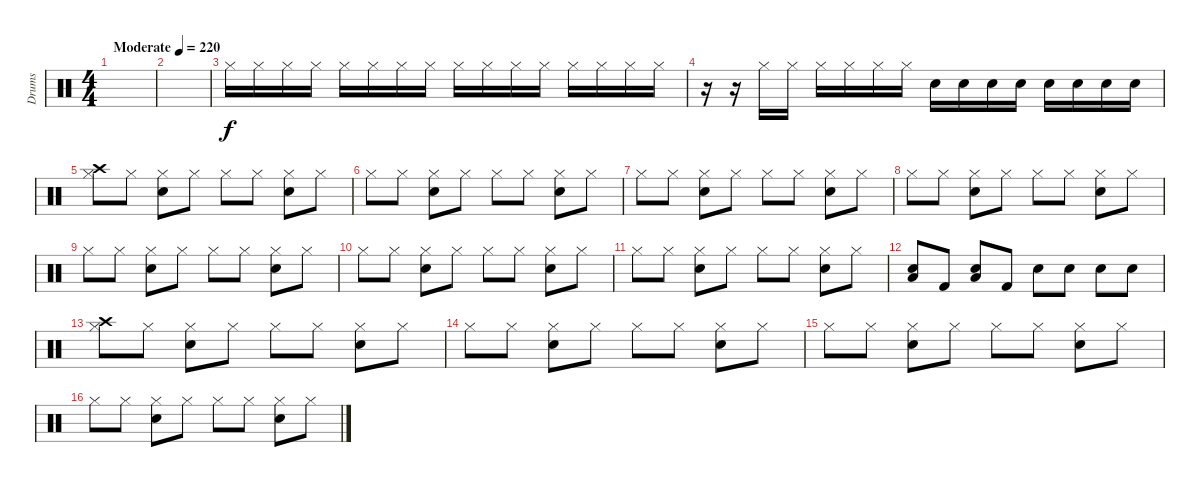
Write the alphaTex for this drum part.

\track ("Drums" "Drums") {instrument percussion}
\staff {score}
\articulation defaults
\ts (4 4)
\tempo (220 "Moderate")
\clef neutral
\ks c
|
|
"Hi-Hat (closed)".16 "Hi-Hat (closed)".16 "Hi-Hat (closed)".16 "Hi-Hat (closed)".16 "Hi-Hat (closed)".16 "Hi-Hat (closed)".16 "Hi-Hat (closed)".16 "Hi-Hat (closed)".16 "Hi-Hat (closed)".16 "Hi-Hat (closed)".16 "Hi-Hat (closed)".16 "Hi-Hat (closed)".16 "Hi-Hat (closed)".16 "Hi-Hat (closed)".16 "Hi-Hat (closed)".16 "Hi-Hat (closed)".16 |
r.16 r.16 "Hi-Hat (closed)".16 "Hi-Hat (closed)".16 "Hi-Hat (closed)".16 "Hi-Hat (closed)".16 "Hi-Hat (closed)".16 "Hi-Hat (closed)".16 "Snare (hit) 2".16 "Snare (hit) 2".16 "Snare (hit) 2".16 "Snare (hit) 2".16 "Snare (hit) 2".16 "Snare (hit) 2".16 "Snare (hit) 2".16 "Snare (hit) 2".16 |
("Crash high (hit)" "Hi-Hat (closed)").8 "Hi-Hat (closed)".8 ("Hi-Hat (closed)" "Snare (hit) 2").8 "Hi-Hat (closed)".8 "Hi-Hat (closed)".8 "Hi-Hat (closed)".8 ("Hi-Hat (closed)" "Snare (hit) 2").8 "Hi-Hat (closed)".8 |
"Hi-Hat (closed)".8 "Hi-Hat (closed)".8 ("Hi-Hat (closed)" "Snare (hit) 2").8 "Hi-Hat (closed)".8 "Hi-Hat (closed)".8 "Hi-Hat (closed)".8 ("Hi-Hat (closed)" "Snare (hit) 2").8 "Hi-Hat (closed)".8 |
"Hi-Hat (closed)".8 "Hi-Hat (closed)".8 ("Hi-Hat (closed)" "Snare (hit) 2").8 "Hi-Hat (closed)".8 "Hi-Hat (closed)".8 "Hi-Hat (closed)".8 ("Hi-Hat (closed)" "Snare (hit) 2").8 "Hi-Hat (closed)".8 |
"Hi-Hat (closed)".8 "Hi-Hat (closed)".8 ("Hi-Hat (closed)" "Snare (hit) 2").8 "Hi-Hat (closed)".8 "Hi-Hat (closed)".8 "Hi-Hat (closed)".8 ("Hi-Hat (closed)" "Snare (hit) 2").8 "Hi-Hat (closed)".8 |
"Hi-Hat (closed)".8 "Hi-Hat (closed)".8 ("Hi-Hat (closed)" "Snare (hit) 2").8 "Hi-Hat (closed)".8 "Hi-Hat (closed)".8 "Hi-Hat (closed)".8 ("Hi-Hat (closed)" "Snare (hit) 2").8 "Hi-Hat (closed)".8 |
"Hi-Hat (closed)".8 "Hi-Hat (closed)".8 ("Hi-Hat (closed)" "Snare (hit) 2").8 "Hi-Hat (closed)".8 "Hi-Hat (closed)".8 "Hi-Hat (closed)".8 ("Hi-Hat (closed)" "Snare (hit) 2").8 "Hi-Hat (closed)".8 |
"Hi-Hat (closed)".8 "Hi-Hat (closed)".8 ("Hi-Hat (closed)" "Snare (hit) 2").8 "Hi-Hat (closed)".8 "Hi-Hat (closed)".8 "Hi-Hat (closed)".8 ("Hi-Hat (closed)" "Snare (hit) 2").8 "Hi-Hat (closed)".8 |
("Low Floor Tom (hit)" "Snare (hit) 2").8 "Kick (hit) 2".8 ("Low Floor Tom (hit)" "Snare (hit) 2").8 "Kick (hit) 2".8 "Snare (hit) 2".8 "Snare (hit) 2".8 "Snare (hit) 2".8 "Snare (hit) 2".8 |
("Crash high (hit)" "Hi-Hat (closed)").8 "Hi-Hat (closed)".8 ("Hi-Hat (closed)" "Snare (hit) 2").8 "Hi-Hat (closed)".8 "Hi-Hat (closed)".8 "Hi-Hat (closed)".8 ("Hi-Hat (closed)" "Snare (hit) 2").8 "Hi-Hat (closed)".8 |
"Hi-Hat (closed)".8 "Hi-Hat (closed)".8 ("Hi-Hat (closed)" "Snare (hit) 2").8 "Hi-Hat (closed)".8 "Hi-Hat (closed)".8 "Hi-Hat (closed)".8 ("Hi-Hat (closed)" "Snare (hit) 2").8 "Hi-Hat (closed)".8 |
"Hi-Hat (closed)".8 "Hi-Hat (closed)".8 ("Hi-Hat (closed)" "Snare (hit) 2").8 "Hi-Hat (closed)".8 "Hi-Hat (closed)".8 "Hi-Hat (closed)".8 ("Hi-Hat (closed)" "Snare (hit) 2").8 "Hi-Hat (closed)".8 |
"Hi-Hat (closed)".8 "Hi-Hat (closed)".8 ("Hi-Hat (closed)" "Snare (hit) 2").8 "Hi-Hat (closed)".8 "Hi-Hat (closed)".8 "Hi-Hat (closed)".8 ("Hi-Hat (closed)" "Snare (hit) 2").8 "Hi-Hat (closed)".8
